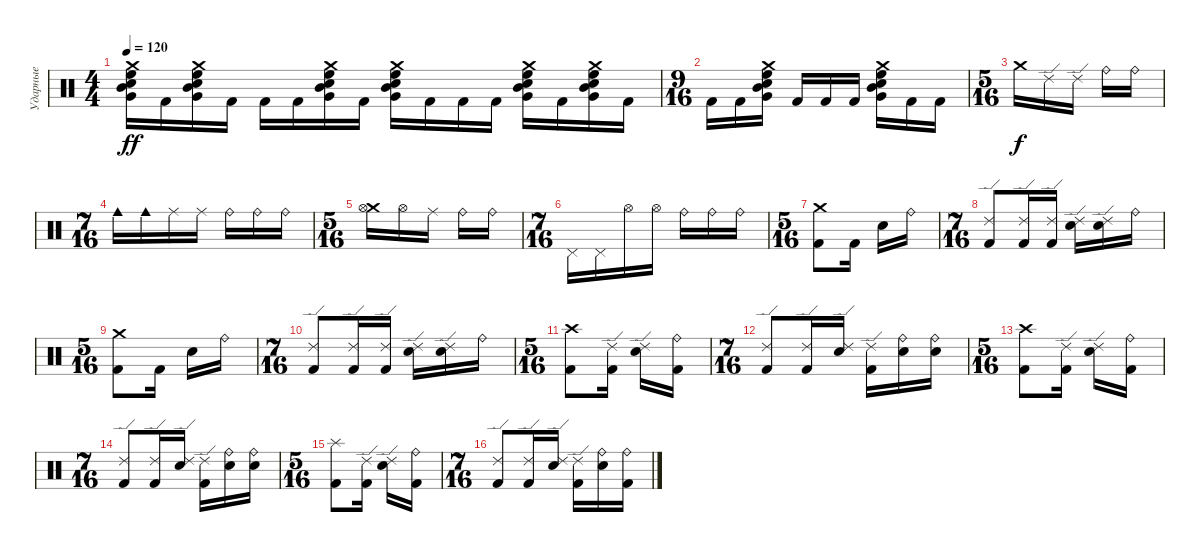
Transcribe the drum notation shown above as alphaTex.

\track ("Ударные" "Ударные") {instrument percussion}
\staff {score}
\articulation defaults
\ts (4 4)
\tempo 120
\clef neutral
\ks c
("Crash medium (hit)" "Electric Snare (hit)" "Mid Tom (hit)" "Very Low Tom (hit)" "High Floor Tom (hit)").16{dy ff} "Kick (hit) 2".16 ("Crash medium (hit)" "Electric Snare (hit)" "Very Low Tom (hit)" "Mid Tom (hit)" "High Floor Tom (hit)").16 "Kick (hit) 2".16 "Kick (hit) 2".16 "Kick (hit) 2".16 ("Crash medium (hit)" "Electric Snare (hit)" "Mid Tom (hit)" "Very Low Tom (hit)" "High Floor Tom (hit)").16 "Kick (hit) 2".16 ("Crash medium (hit)" "Electric Snare (hit)" "Mid Tom (hit)" "Very Low Tom (hit)" "High Floor Tom (hit)").16 "Kick (hit) 2".16 "Kick (hit) 2".16 "Kick (hit) 2".16 ("Crash medium (hit)" "Electric Snare (hit)" "Mid Tom (hit)" "Very Low Tom (hit)" "High Floor Tom (hit)").16 "Kick (hit) 2".16 ("Crash medium (hit)" "Electric Snare (hit)" "Mid Tom (hit)" "Very Low Tom (hit)" "High Floor Tom (hit)").16 "Kick (hit) 2".16 |
\ts (9 16)
"Kick (hit) 2".16 "Kick (hit) 2".16 ("Electric Snare (hit)" "Very Low Tom (hit)" "Mid Tom (hit)" "High Floor Tom (hit)" "Crash medium (hit)").16 "Kick (hit) 2".16 "Kick (hit) 2".16 "Kick (hit) 2".16 ("Electric Snare (hit)" "Very Low Tom (hit)" "Mid Tom (hit)" "High Floor Tom (hit)" "Crash medium (hit)").16 "Kick (hit) 2".16 "Kick (hit) 2".16 |
\ts (5 16)
"Crash medium (hit)".16{dy f} "Ride (edge) 2".16 "Ride (edge) 2".16 "Ride (bell)".16 "Ride (bell)".16 |
\ts (7 16)
"Cowbell medium (hit)".16 "Cowbell medium (hit)".16 "Ride (middle)".16 "Ride (middle)".16 "Ride (bell)".16 "Ride (bell)".16 "Ride (bell)".16 |
\ts (5 16)
("Crash medium (hit)" "Hi-Hat (open)").16 "Hi-Hat (open)".16 "Ride (middle)".16 "Ride (bell)".16 "Ride (bell)".16 |
\ts (7 16)
"Pedal Hi-Hat (hit)".16 "Pedal Hi-Hat (hit)".16 "Hi-Hat (open)".16 "Hi-Hat (open)".16 "Ride (bell)".16 "Ride (bell)".16 "Ride (bell)".16 |
\ts (5 16)
("Kick (hit) 2" "Crash medium (hit)").8 "Kick (hit) 2".16 "Electric Snare (hit)".16 "Ride (bell)".16 |
\ts (7 16)
("Ride (edge) 2" "Kick (hit) 2").8 ("Ride (edge) 2" "Kick (hit) 2").16 ("Ride (edge) 2" "Kick (hit) 2").16 ("Ride (edge) 2" "Electric Snare (hit)").16 ("Ride (edge) 2" "Electric Snare (hit)").16 "Ride (bell)".16 |
\ts (5 16)
("Kick (hit) 2" "Crash medium (hit)").8 "Kick (hit) 2".16 "Electric Snare (hit)".16 "Ride (bell)".16 |
\ts (7 16)
("Ride (edge) 2" "Kick (hit) 2").8 ("Ride (edge) 2" "Kick (hit) 2").16 ("Ride (edge) 2" "Kick (hit) 2").16 ("Ride (edge) 2" "Electric Snare (hit)").16 ("Ride (edge) 2" "Electric Snare (hit)").16 "Ride (bell)".16 |
\ts (5 16)
("Crash high (hit)" "Kick (hit) 2").8 ("Ride (edge) 2" "Kick (hit) 2").16 ("Ride (edge) 2" "Electric Snare (hit)").16 ("Ride (bell)" "Kick (hit) 2").16 |
\ts (7 16)
("Ride (edge) 2" "Kick (hit) 2").8 ("Ride (edge) 2" "Kick (hit) 2").16 ("Ride (edge) 2" "Electric Snare (hit)").16 ("Ride (edge) 2" "Kick (hit) 2").16 ("Ride (bell)" "Electric Snare (hit)").16 ("Ride (bell)" "Electric Snare (hit)").16 |
\ts (5 16)
("Crash high (hit)" "Kick (hit) 2").8 ("Ride (edge) 2" "Kick (hit) 2").16 ("Ride (edge) 2" "Electric Snare (hit)").16 ("Ride (bell)" "Kick (hit) 2").16 |
\ts (7 16)
("Ride (edge) 2" "Kick (hit) 2").8 ("Ride (edge) 2" "Kick (hit) 2").16 ("Ride (edge) 2" "Electric Snare (hit)").16 ("Ride (edge) 2" "Kick (hit) 2").16 ("Ride (bell)" "Electric Snare (hit)").16 ("Ride (bell)" "Electric Snare (hit)").16 |
\ts (5 16)
("Splash (hit)" "Kick (hit) 2").8 ("Ride (edge) 2" "Kick (hit) 2").16 ("Ride (edge) 2" "Electric Snare (hit)").16 ("Ride (bell)" "Kick (hit) 2").16 |
\ts (7 16)
("Ride (edge) 2" "Kick (hit) 2").8 ("Ride (edge) 2" "Kick (hit) 2").16 ("Ride (edge) 2" "Electric Snare (hit)").16 ("Ride (edge) 2" "Kick (hit) 2").16 ("Ride (bell)" "Electric Snare (hit)").16 ("Ride (bell)" "Kick (hit) 2").16
